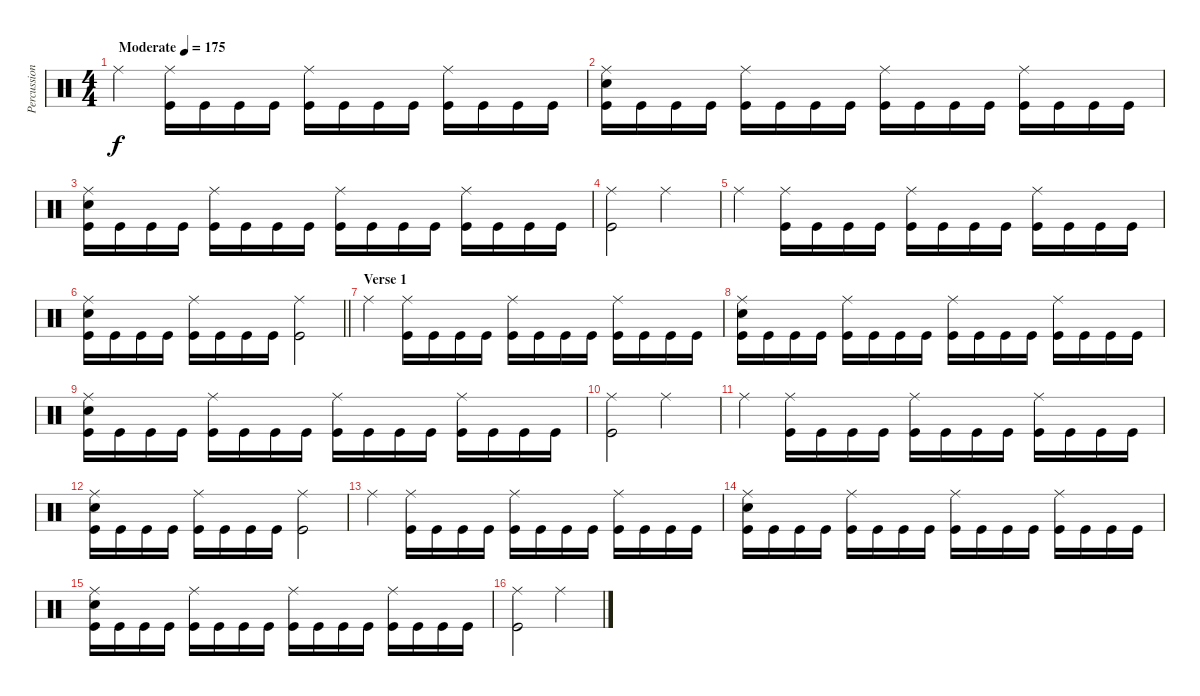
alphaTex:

\track ("Percussion" "Percussion") {instrument percussion}
\staff {score}
\articulation defaults
\ts (4 4)
\tempo (175 "Moderate")
\clef neutral
\ks c "Ride (middle)".4{dy f}
("Ride (middle)" "Kick (hit)").16 "Kick (hit)".16 "Kick (hit)".16 "Kick (hit)".16 ("Ride (middle)" "Kick (hit)").16 "Kick (hit)".16 "Kick (hit)".16 "Kick (hit)".16 ("Ride (middle)" "Kick (hit)").16 "Kick (hit)".16 "Kick (hit)".16 "Kick (hit)".16 |
("Ride (middle)" "Electric Snare (hit)" "Kick (hit)").16 "Kick (hit)".16 "Kick (hit)".16 "Kick (hit)".16 ("Ride (middle)" "Kick (hit)").16 "Kick (hit)".16 "Kick (hit)".16 "Kick (hit)".16 ("Ride (middle)" "Kick (hit)").16 "Kick (hit)".16 "Kick (hit)".16 "Kick (hit)".16 ("Ride (middle)" "Kick (hit)").16 "Kick (hit)".16 "Kick (hit)".16 "Kick (hit)".16 |
("Ride (middle)" "Electric Snare (hit)" "Kick (hit)").16 "Kick (hit)".16 "Kick (hit)".16 "Kick (hit)".16 ("Ride (middle)" "Kick (hit)").16 "Kick (hit)".16 "Kick (hit)".16 "Kick (hit)".16 ("Ride (middle)" "Kick (hit)").16 "Kick (hit)".16 "Kick (hit)".16 "Kick (hit)".16 ("Ride (middle)" "Kick (hit)").16 "Kick (hit)".16 "Kick (hit)".16 "Kick (hit)".16 |
("Ride (middle)" "Kick (hit)").2 "Ride (middle)".2 |
"Ride (middle)".4 ("Ride (middle)" "Kick (hit)").16 "Kick (hit)".16 "Kick (hit)".16 "Kick (hit)".16 ("Ride (middle)" "Kick (hit)").16 "Kick (hit)".16 "Kick (hit)".16 "Kick (hit)".16 ("Ride (middle)" "Kick (hit)").16 "Kick (hit)".16 "Kick (hit)".16 "Kick (hit)".16 |
\barLineRight lightlight
("Ride (middle)" "Electric Snare (hit)" "Kick (hit)").16 "Kick (hit)".16 "Kick (hit)".16 "Kick (hit)".16 ("Ride (middle)" "Kick (hit)").16 "Kick (hit)".16 "Kick (hit)".16 "Kick (hit)".16 ("Ride (middle)" "Kick (hit)").2 |
\section ("" "Verse 1")
"Ride (middle)".4 ("Ride (middle)" "Kick (hit)").16 "Kick (hit)".16 "Kick (hit)".16 "Kick (hit)".16 ("Ride (middle)" "Kick (hit)").16 "Kick (hit)".16 "Kick (hit)".16 "Kick (hit)".16 ("Ride (middle)" "Kick (hit)").16 "Kick (hit)".16 "Kick (hit)".16 "Kick (hit)".16 |
("Ride (middle)" "Electric Snare (hit)" "Kick (hit)").16 "Kick (hit)".16 "Kick (hit)".16 "Kick (hit)".16 ("Ride (middle)" "Kick (hit)").16 "Kick (hit)".16 "Kick (hit)".16 "Kick (hit)".16 ("Ride (middle)" "Kick (hit)").16 "Kick (hit)".16 "Kick (hit)".16 "Kick (hit)".16 ("Ride (middle)" "Kick (hit)").16 "Kick (hit)".16 "Kick (hit)".16 "Kick (hit)".16 |
("Ride (middle)" "Electric Snare (hit)" "Kick (hit)").16 "Kick (hit)".16 "Kick (hit)".16 "Kick (hit)".16 ("Ride (middle)" "Kick (hit)").16 "Kick (hit)".16 "Kick (hit)".16 "Kick (hit)".16 ("Ride (middle)" "Kick (hit)").16 "Kick (hit)".16 "Kick (hit)".16 "Kick (hit)".16 ("Ride (middle)" "Kick (hit)").16 "Kick (hit)".16 "Kick (hit)".16 "Kick (hit)".16 |
("Ride (middle)" "Kick (hit)").2 "Ride (middle)".2 |
"Ride (middle)".4 ("Ride (middle)" "Kick (hit)").16 "Kick (hit)".16 "Kick (hit)".16 "Kick (hit)".16 ("Ride (middle)" "Kick (hit)").16 "Kick (hit)".16 "Kick (hit)".16 "Kick (hit)".16 ("Ride (middle)" "Kick (hit)").16 "Kick (hit)".16 "Kick (hit)".16 "Kick (hit)".16 |
("Ride (middle)" "Electric Snare (hit)" "Kick (hit)").16 "Kick (hit)".16 "Kick (hit)".16 "Kick (hit)".16 ("Ride (middle)" "Kick (hit)").16 "Kick (hit)".16 "Kick (hit)".16 "Kick (hit)".16 ("Ride (middle)" "Kick (hit)").2 |
"Ride (middle)".4 ("Ride (middle)" "Kick (hit)").16 "Kick (hit)".16 "Kick (hit)".16 "Kick (hit)".16 ("Ride (middle)" "Kick (hit)").16 "Kick (hit)".16 "Kick (hit)".16 "Kick (hit)".16 ("Ride (middle)" "Kick (hit)").16 "Kick (hit)".16 "Kick (hit)".16 "Kick (hit)".16 |
("Ride (middle)" "Electric Snare (hit)" "Kick (hit)").16 "Kick (hit)".16 "Kick (hit)".16 "Kick (hit)".16 ("Ride (middle)" "Kick (hit)").16 "Kick (hit)".16 "Kick (hit)".16 "Kick (hit)".16 ("Ride (middle)" "Kick (hit)").16 "Kick (hit)".16 "Kick (hit)".16 "Kick (hit)".16 ("Ride (middle)" "Kick (hit)").16 "Kick (hit)".16 "Kick (hit)".16 "Kick (hit)".16 |
("Ride (middle)" "Electric Snare (hit)" "Kick (hit)").16 "Kick (hit)".16 "Kick (hit)".16 "Kick (hit)".16 ("Ride (middle)" "Kick (hit)").16 "Kick (hit)".16 "Kick (hit)".16 "Kick (hit)".16 ("Ride (middle)" "Kick (hit)").16 "Kick (hit)".16 "Kick (hit)".16 "Kick (hit)".16 ("Ride (middle)" "Kick (hit)").16 "Kick (hit)".16 "Kick (hit)".16 "Kick (hit)".16 |
("Ride (middle)" "Kick (hit)").2 "Ride (middle)".2
